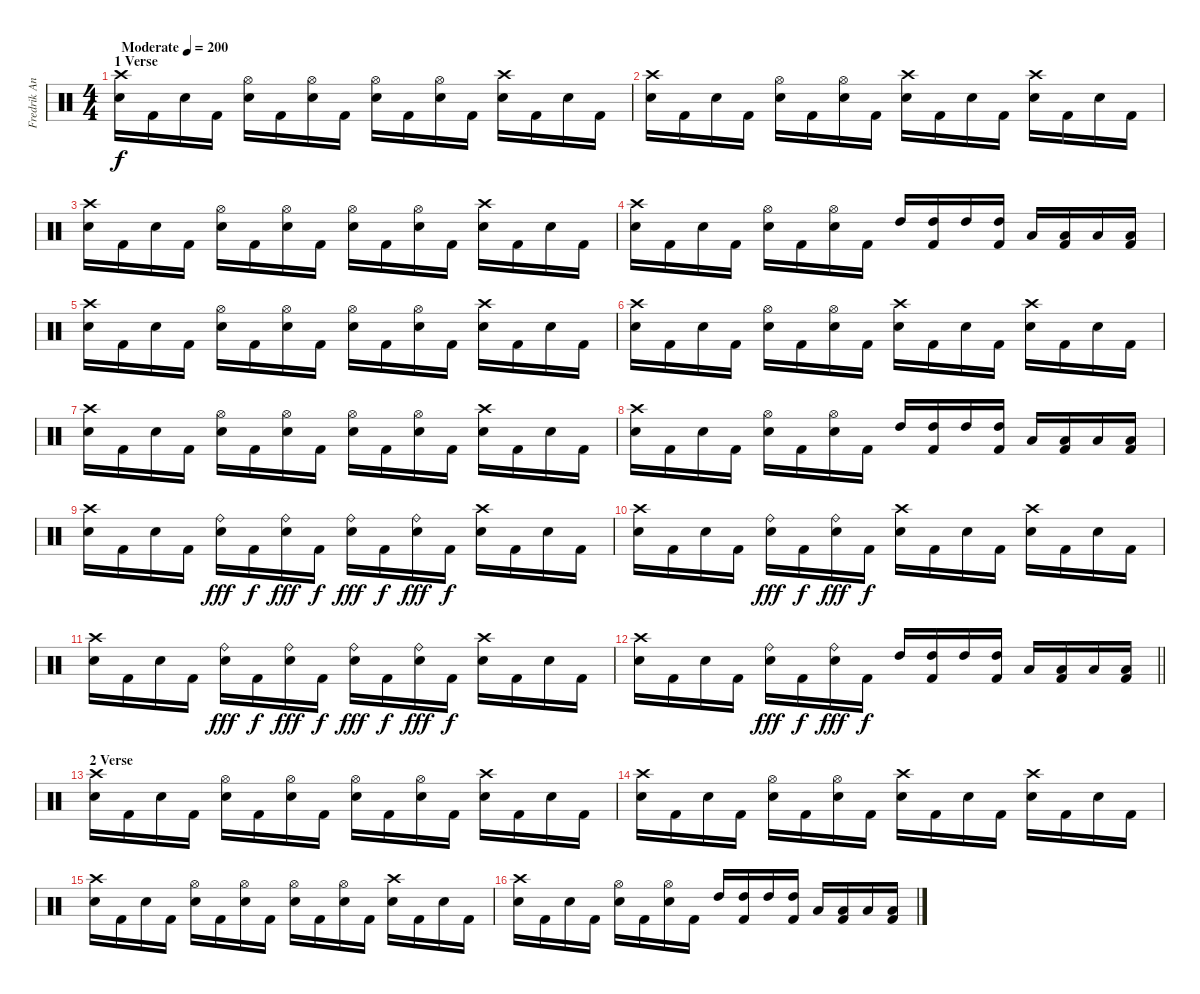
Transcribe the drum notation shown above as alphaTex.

\track ("Fredrik Andersson " "Fredrik An") {instrument percussion}
\staff {score}
\articulation defaults
\ts (4 4)
\section ("" "1 Verse")
\tempo (200 "Moderate")
\clef neutral
\ks c
("Crash high (hit)" "Snare (hit) 2").16{dy f} "Kick (hit) 2".16 "Snare (hit) 2".16 "Kick (hit) 2".16 ("Hi-Hat (open)" "Snare (hit) 2").16 "Kick (hit) 2".16 ("Hi-Hat (open)" "Snare (hit) 2").16 "Kick (hit) 2".16 ("Hi-Hat (open)" "Snare (hit) 2").16 "Kick (hit) 2".16 ("Hi-Hat (open)" "Snare (hit) 2").16 "Kick (hit) 2".16 ("Crash high (hit)" "Snare (hit) 2").16 "Kick (hit) 2".16 "Snare (hit) 2".16 "Kick (hit) 2".16 |
("Crash high (hit)" "Snare (hit) 2").16 "Kick (hit) 2".16 "Snare (hit) 2".16 "Kick (hit) 2".16 ("Hi-Hat (open)" "Snare (hit) 2").16 "Kick (hit) 2".16 ("Hi-Hat (open)" "Snare (hit) 2").16 "Kick (hit) 2".16 ("Crash high (hit)" "Snare (hit) 2").16 "Kick (hit) 2".16 "Snare (hit) 2".16 "Kick (hit) 2".16 ("Crash high (hit)" "Snare (hit) 2").16 "Kick (hit) 2".16 "Snare (hit) 2".16 "Kick (hit) 2".16 |
("Crash high (hit)" "Snare (hit) 2").16 "Kick (hit) 2".16 "Snare (hit) 2".16 "Kick (hit) 2".16 ("Hi-Hat (open)" "Snare (hit) 2").16 "Kick (hit) 2".16 ("Hi-Hat (open)" "Snare (hit) 2").16 "Kick (hit) 2".16 ("Hi-Hat (open)" "Snare (hit) 2").16 "Kick (hit) 2".16 ("Hi-Hat (open)" "Snare (hit) 2").16 "Kick (hit) 2".16 ("Crash high (hit)" "Snare (hit) 2").16 "Kick (hit) 2".16 "Snare (hit) 2".16 "Kick (hit) 2".16 |
("Crash high (hit)" "Snare (hit) 2").16 "Kick (hit) 2".16 "Snare (hit) 2".16 "Kick (hit) 2".16 ("Hi-Hat (open)" "Snare (hit) 2").16 "Kick (hit) 2".16 ("Hi-Hat (open)" "Snare (hit) 2").16 "Kick (hit) 2".16 "High Tom (hit)".16 ("High Tom (hit)" "Kick (hit) 2").16 "High Tom (hit)".16 ("High Tom (hit)" "Kick (hit) 2").16 "Low Tom (hit)".16 ("Low Tom (hit)" "Kick (hit) 2").16 "Low Tom (hit)".16 ("Low Tom (hit)" "Kick (hit) 2").16 |
("Crash high (hit)" "Snare (hit) 2").16 "Kick (hit) 2".16 "Snare (hit) 2".16 "Kick (hit) 2".16 ("Hi-Hat (open)" "Snare (hit) 2").16 "Kick (hit) 2".16 ("Hi-Hat (open)" "Snare (hit) 2").16 "Kick (hit) 2".16 ("Hi-Hat (open)" "Snare (hit) 2").16 "Kick (hit) 2".16 ("Hi-Hat (open)" "Snare (hit) 2").16 "Kick (hit) 2".16 ("Crash high (hit)" "Snare (hit) 2").16 "Kick (hit) 2".16 "Snare (hit) 2".16 "Kick (hit) 2".16 |
("Crash high (hit)" "Snare (hit) 2").16 "Kick (hit) 2".16 "Snare (hit) 2".16 "Kick (hit) 2".16 ("Hi-Hat (open)" "Snare (hit) 2").16 "Kick (hit) 2".16 ("Hi-Hat (open)" "Snare (hit) 2").16 "Kick (hit) 2".16 ("Crash high (hit)" "Snare (hit) 2").16 "Kick (hit) 2".16 "Snare (hit) 2".16 "Kick (hit) 2".16 ("Crash high (hit)" "Snare (hit) 2").16 "Kick (hit) 2".16 "Snare (hit) 2".16 "Kick (hit) 2".16 |
("Crash high (hit)" "Snare (hit) 2").16 "Kick (hit) 2".16 "Snare (hit) 2".16 "Kick (hit) 2".16 ("Hi-Hat (open)" "Snare (hit) 2").16 "Kick (hit) 2".16 ("Hi-Hat (open)" "Snare (hit) 2").16 "Kick (hit) 2".16 ("Hi-Hat (open)" "Snare (hit) 2").16 "Kick (hit) 2".16 ("Hi-Hat (open)" "Snare (hit) 2").16 "Kick (hit) 2".16 ("Crash high (hit)" "Snare (hit) 2").16 "Kick (hit) 2".16 "Snare (hit) 2".16 "Kick (hit) 2".16 |
("Crash high (hit)" "Snare (hit) 2").16 "Kick (hit) 2".16 "Snare (hit) 2".16 "Kick (hit) 2".16 ("Hi-Hat (open)" "Snare (hit) 2").16 "Kick (hit) 2".16 ("Hi-Hat (open)" "Snare (hit) 2").16 "Kick (hit) 2".16 "High Tom (hit)".16 ("High Tom (hit)" "Kick (hit) 2").16 "High Tom (hit)".16 ("High Tom (hit)" "Kick (hit) 2").16 "Low Tom (hit)".16 ("Low Tom (hit)" "Kick (hit) 2").16 "Low Tom (hit)".16 ("Low Tom (hit)" "Kick (hit) 2").16 |
("Crash high (hit)" "Snare (hit) 2").16 "Kick (hit) 2".16 "Snare (hit) 2".16 "Kick (hit) 2".16 ("Ride (bell)" "Snare (hit) 2").16{dy fff} "Kick (hit) 2".16{dy f} ("Ride (bell)" "Snare (hit) 2").16{dy fff} "Kick (hit) 2".16{dy f} ("Ride (bell)" "Snare (hit) 2").16{dy fff} "Kick (hit) 2".16{dy f} ("Ride (bell)" "Snare (hit) 2").16{dy fff} "Kick (hit) 2".16{dy f} ("Crash high (hit)" "Snare (hit) 2").16 "Kick (hit) 2".16 "Snare (hit) 2".16 "Kick (hit) 2".16 |
("Crash high (hit)" "Snare (hit) 2").16 "Kick (hit) 2".16 "Snare (hit) 2".16 "Kick (hit) 2".16 ("Ride (bell)" "Snare (hit) 2").16{dy fff} "Kick (hit) 2".16{dy f} ("Ride (bell)" "Snare (hit) 2").16{dy fff} "Kick (hit) 2".16{dy f} ("Crash high (hit)" "Snare (hit) 2").16 "Kick (hit) 2".16 "Snare (hit) 2".16 "Kick (hit) 2".16 ("Crash high (hit)" "Snare (hit) 2").16 "Kick (hit) 2".16 "Snare (hit) 2".16 "Kick (hit) 2".16 |
("Crash high (hit)" "Snare (hit) 2").16 "Kick (hit) 2".16 "Snare (hit) 2".16 "Kick (hit) 2".16 ("Ride (bell)" "Snare (hit) 2").16{dy fff} "Kick (hit) 2".16{dy f} ("Ride (bell)" "Snare (hit) 2").16{dy fff} "Kick (hit) 2".16{dy f} ("Ride (bell)" "Snare (hit) 2").16{dy fff} "Kick (hit) 2".16{dy f} ("Ride (bell)" "Snare (hit) 2").16{dy fff} "Kick (hit) 2".16{dy f} ("Crash high (hit)" "Snare (hit) 2").16 "Kick (hit) 2".16 "Snare (hit) 2".16 "Kick (hit) 2".16 |
\barLineRight lightlight
("Crash high (hit)" "Snare (hit) 2").16 "Kick (hit) 2".16 "Snare (hit) 2".16 "Kick (hit) 2".16 ("Ride (bell)" "Snare (hit) 2").16{dy fff} "Kick (hit) 2".16{dy f} ("Ride (bell)" "Snare (hit) 2").16{dy fff} "Kick (hit) 2".16{dy f} "High Tom (hit)".16 ("High Tom (hit)" "Kick (hit) 2").16 "High Tom (hit)".16 ("High Tom (hit)" "Kick (hit) 2").16 "Low Tom (hit)".16 ("Low Tom (hit)" "Kick (hit) 2").16 "Low Tom (hit)".16 ("Low Tom (hit)" "Kick (hit) 2").16 |
\section ("" "2 Verse")
("Crash high (hit)" "Snare (hit) 2").16 "Kick (hit) 2".16 "Snare (hit) 2".16 "Kick (hit) 2".16 ("Hi-Hat (open)" "Snare (hit) 2").16 "Kick (hit) 2".16 ("Hi-Hat (open)" "Snare (hit) 2").16 "Kick (hit) 2".16 ("Hi-Hat (open)" "Snare (hit) 2").16 "Kick (hit) 2".16 ("Hi-Hat (open)" "Snare (hit) 2").16 "Kick (hit) 2".16 ("Crash high (hit)" "Snare (hit) 2").16 "Kick (hit) 2".16 "Snare (hit) 2".16 "Kick (hit) 2".16 |
("Crash high (hit)" "Snare (hit) 2").16 "Kick (hit) 2".16 "Snare (hit) 2".16 "Kick (hit) 2".16 ("Hi-Hat (open)" "Snare (hit) 2").16 "Kick (hit) 2".16 ("Hi-Hat (open)" "Snare (hit) 2").16 "Kick (hit) 2".16 ("Crash high (hit)" "Snare (hit) 2").16 "Kick (hit) 2".16 "Snare (hit) 2".16 "Kick (hit) 2".16 ("Crash high (hit)" "Snare (hit) 2").16 "Kick (hit) 2".16 "Snare (hit) 2".16 "Kick (hit) 2".16 |
("Crash high (hit)" "Snare (hit) 2").16 "Kick (hit) 2".16 "Snare (hit) 2".16 "Kick (hit) 2".16 ("Hi-Hat (open)" "Snare (hit) 2").16 "Kick (hit) 2".16 ("Hi-Hat (open)" "Snare (hit) 2").16 "Kick (hit) 2".16 ("Hi-Hat (open)" "Snare (hit) 2").16 "Kick (hit) 2".16 ("Hi-Hat (open)" "Snare (hit) 2").16 "Kick (hit) 2".16 ("Crash high (hit)" "Snare (hit) 2").16 "Kick (hit) 2".16 "Snare (hit) 2".16 "Kick (hit) 2".16 |
("Crash high (hit)" "Snare (hit) 2").16 "Kick (hit) 2".16 "Snare (hit) 2".16 "Kick (hit) 2".16 ("Hi-Hat (open)" "Snare (hit) 2").16 "Kick (hit) 2".16 ("Hi-Hat (open)" "Snare (hit) 2").16 "Kick (hit) 2".16 "High Tom (hit)".16 ("High Tom (hit)" "Kick (hit) 2").16 "High Tom (hit)".16 ("High Tom (hit)" "Kick (hit) 2").16 "Low Tom (hit)".16 ("Low Tom (hit)" "Kick (hit) 2").16 "Low Tom (hit)".16 ("Low Tom (hit)" "Kick (hit) 2").16
